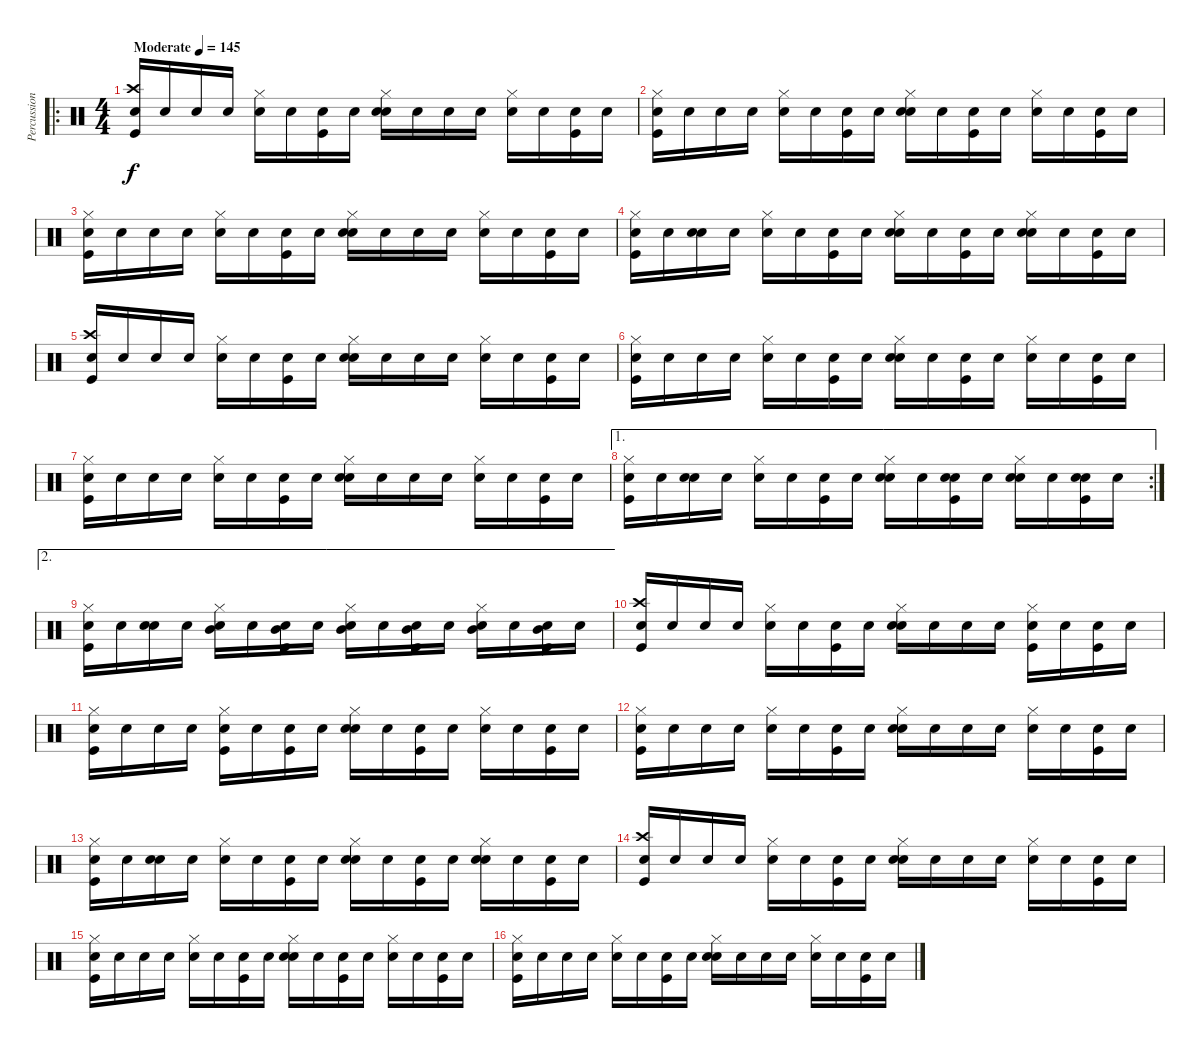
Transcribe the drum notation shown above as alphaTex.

\track ("Percussion" "Percussion") {instrument percussion}
\staff {score}
\articulation defaults
\ro
\ts (4 4)
\tempo (145 "Moderate")
\clef neutral
\ks c
("Snare (hit)" "Crash high (hit)" "Kick (hit)").16{dy f} "Snare (hit)".16 "Snare (hit)".16 "Snare (hit)".16 ("Snare (hit)" "Hi-Hat (closed)").16 "Snare (hit)".16 ("Snare (hit)" "Kick (hit)").16 "Snare (hit)".16 ("Snare (hit)" "Hi-Hat (closed)" "Snare (hit) 2").16 "Snare (hit)".16 "Snare (hit)".16 "Snare (hit)".16 ("Snare (hit)" "Hi-Hat (closed)").16 "Snare (hit)".16 ("Snare (hit)" "Kick (hit)").16 "Snare (hit)".16 |
("Snare (hit)" "Hi-Hat (closed)" "Kick (hit)").16 "Snare (hit)".16 "Snare (hit)".16 "Snare (hit)".16 ("Snare (hit)" "Hi-Hat (closed)").16 "Snare (hit)".16 ("Snare (hit)" "Kick (hit)").16 "Snare (hit)".16 ("Snare (hit)" "Hi-Hat (closed)" "Snare (hit) 2").16 "Snare (hit)".16 ("Snare (hit)" "Kick (hit)").16 "Snare (hit)".16 ("Snare (hit)" "Hi-Hat (closed)").16 "Snare (hit)".16 ("Snare (hit)" "Kick (hit)").16 "Snare (hit)".16 |
("Snare (hit)" "Hi-Hat (closed)" "Kick (hit)").16 "Snare (hit)".16 "Snare (hit)".16 "Snare (hit)".16 ("Snare (hit)" "Hi-Hat (closed)").16 "Snare (hit)".16 ("Snare (hit)" "Kick (hit)").16 "Snare (hit)".16 ("Snare (hit)" "Hi-Hat (closed)" "Snare (hit) 2").16 "Snare (hit)".16 "Snare (hit)".16 "Snare (hit)".16 ("Snare (hit)" "Hi-Hat (closed)").16 "Snare (hit)".16 ("Snare (hit)" "Kick (hit)").16 "Snare (hit)".16 |
("Snare (hit)" "Hi-Hat (closed)" "Kick (hit)").16 "Snare (hit)".16 ("Snare (hit)" "Snare (hit) 2").16 "Snare (hit)".16 ("Snare (hit)" "Hi-Hat (closed)").16 "Snare (hit)".16 ("Snare (hit)" "Kick (hit)").16 "Snare (hit)".16 ("Snare (hit)" "Snare (hit) 2" "Hi-Hat (closed)").16 "Snare (hit)".16 ("Snare (hit)" "Kick (hit)").16 "Snare (hit)".16 ("Snare (hit)" "Snare (hit) 2" "Hi-Hat (closed)").16 "Snare (hit)".16 ("Snare (hit)" "Kick (hit)").16 "Snare (hit)".16 |
("Snare (hit)" "Crash high (hit)" "Kick (hit)").16 "Snare (hit)".16 "Snare (hit)".16 "Snare (hit)".16 ("Snare (hit)" "Hi-Hat (closed)").16 "Snare (hit)".16 ("Snare (hit)" "Kick (hit)").16 "Snare (hit)".16 ("Snare (hit)" "Hi-Hat (closed)" "Snare (hit) 2").16 "Snare (hit)".16 "Snare (hit)".16 "Snare (hit)".16 ("Snare (hit)" "Hi-Hat (closed)").16 "Snare (hit)".16 ("Snare (hit)" "Kick (hit)").16 "Snare (hit)".16 |
("Snare (hit)" "Hi-Hat (closed)" "Kick (hit)").16 "Snare (hit)".16 "Snare (hit)".16 "Snare (hit)".16 ("Snare (hit)" "Hi-Hat (closed)").16 "Snare (hit)".16 ("Snare (hit)" "Kick (hit)").16 "Snare (hit)".16 ("Snare (hit)" "Hi-Hat (closed)" "Snare (hit) 2").16 "Snare (hit)".16 ("Snare (hit)" "Kick (hit)").16 "Snare (hit)".16 ("Snare (hit)" "Hi-Hat (closed)").16 "Snare (hit)".16 ("Snare (hit)" "Kick (hit)").16 "Snare (hit)".16 |
("Snare (hit)" "Hi-Hat (closed)" "Kick (hit)").16 "Snare (hit)".16 "Snare (hit)".16 "Snare (hit)".16 ("Snare (hit)" "Hi-Hat (closed)").16 "Snare (hit)".16 ("Snare (hit)" "Kick (hit)").16 "Snare (hit)".16 ("Snare (hit)" "Hi-Hat (closed)" "Snare (hit) 2").16 "Snare (hit)".16 "Snare (hit)".16 "Snare (hit)".16 ("Snare (hit)" "Hi-Hat (closed)").16 "Snare (hit)".16 ("Snare (hit)" "Kick (hit)").16 "Snare (hit)".16 |
\ae 1
\rc 2
("Snare (hit)" "Hi-Hat (closed)" "Kick (hit)").16 "Snare (hit)".16 ("Snare (hit)" "Snare (hit) 2").16 "Snare (hit)".16 ("Snare (hit)" "Hi-Hat (closed)").16 "Snare (hit)".16 ("Snare (hit)" "Kick (hit)").16 "Snare (hit)".16 ("Snare (hit)" "Snare (hit) 2" "Hi-Hat (closed)").16 "Snare (hit)".16 ("Snare (hit)" "Snare (hit) 2" "Kick (hit)").16 "Snare (hit)".16 ("Snare (hit)" "Snare (hit) 2" "Hi-Hat (closed)").16 "Snare (hit)".16 ("Snare (hit)" "Snare (hit) 2" "Kick (hit)").16 "Snare (hit)".16 |
\ae 2
("Snare (hit)" "Hi-Hat (closed)" "Kick (hit)").16 "Snare (hit)".16 ("Snare (hit)" "Snare (hit) 2").16 "Snare (hit)".16 ("Snare (hit)" "Mid Tom (hit)" "Hi-Hat (closed)").16 "Snare (hit)".16 ("Snare (hit)" "Mid Tom (hit)" "Kick (hit)").16 "Snare (hit)".16 ("Snare (hit)" "Mid Tom (hit)" "Hi-Hat (closed)").16 "Snare (hit)".16 ("Snare (hit)" "Mid Tom (hit)" "Kick (hit)").16 "Snare (hit)".16 ("Snare (hit)" "Mid Tom (hit)" "Hi-Hat (closed)").16 "Snare (hit)".16 ("Snare (hit)" "Mid Tom (hit)" "Kick (hit)").16 "Snare (hit)".16 |
("Snare (hit)" "Crash high (hit)" "Kick (hit)").16 "Snare (hit)".16 "Snare (hit)".16 "Snare (hit)".16 ("Snare (hit)" "Hi-Hat (closed)").16 "Snare (hit)".16 ("Snare (hit)" "Kick (hit)").16 "Snare (hit)".16 ("Snare (hit)" "Hi-Hat (closed)" "Snare (hit) 2").16 "Snare (hit)".16 "Snare (hit)".16 "Snare (hit)".16 ("Snare (hit)" "Hi-Hat (closed)" "Kick (hit)").16 "Snare (hit)".16 ("Snare (hit)" "Kick (hit)").16 "Snare (hit)".16 |
("Snare (hit)" "Hi-Hat (closed)" "Kick (hit)").16 "Snare (hit)".16 "Snare (hit)".16 "Snare (hit)".16 ("Snare (hit)" "Hi-Hat (closed)" "Kick (hit)").16 "Snare (hit)".16 ("Snare (hit)" "Kick (hit)").16 "Snare (hit)".16 ("Snare (hit)" "Hi-Hat (closed)" "Snare (hit) 2").16 "Snare (hit)".16 ("Snare (hit)" "Kick (hit)").16 "Snare (hit)".16 ("Snare (hit)" "Hi-Hat (closed)").16 "Snare (hit)".16 ("Snare (hit)" "Kick (hit)").16 "Snare (hit)".16 |
("Snare (hit)" "Hi-Hat (closed)" "Kick (hit)").16 "Snare (hit)".16 "Snare (hit)".16 "Snare (hit)".16 ("Snare (hit)" "Hi-Hat (closed)").16 "Snare (hit)".16 ("Snare (hit)" "Kick (hit)").16 "Snare (hit)".16 ("Snare (hit)" "Hi-Hat (closed)" "Snare (hit) 2").16 "Snare (hit)".16 "Snare (hit)".16 "Snare (hit)".16 ("Snare (hit)" "Hi-Hat (closed)").16 "Snare (hit)".16 ("Snare (hit)" "Kick (hit)").16 "Snare (hit)".16 |
("Snare (hit)" "Hi-Hat (closed)" "Kick (hit)").16 "Snare (hit)".16 ("Snare (hit)" "Snare (hit) 2").16 "Snare (hit)".16 ("Snare (hit)" "Hi-Hat (closed)").16 "Snare (hit)".16 ("Snare (hit)" "Kick (hit)").16 "Snare (hit)".16 ("Snare (hit)" "Snare (hit) 2" "Hi-Hat (closed)").16 "Snare (hit)".16 ("Snare (hit)" "Kick (hit)").16 "Snare (hit)".16 ("Snare (hit)" "Snare (hit) 2" "Hi-Hat (closed)").16 "Snare (hit)".16 ("Snare (hit)" "Kick (hit)").16 "Snare (hit)".16 |
("Snare (hit)" "Crash high (hit)" "Kick (hit)").16 "Snare (hit)".16 "Snare (hit)".16 "Snare (hit)".16 ("Snare (hit)" "Hi-Hat (closed)").16 "Snare (hit)".16 ("Snare (hit)" "Kick (hit)").16 "Snare (hit)".16 ("Snare (hit)" "Hi-Hat (closed)" "Snare (hit) 2").16 "Snare (hit)".16 "Snare (hit)".16 "Snare (hit)".16 ("Snare (hit)" "Hi-Hat (closed)").16 "Snare (hit)".16 ("Snare (hit)" "Kick (hit)").16 "Snare (hit)".16 |
("Snare (hit)" "Hi-Hat (closed)" "Kick (hit)").16 "Snare (hit)".16 "Snare (hit)".16 "Snare (hit)".16 ("Snare (hit)" "Hi-Hat (closed)").16 "Snare (hit)".16 ("Snare (hit)" "Kick (hit)").16 "Snare (hit)".16 ("Snare (hit)" "Hi-Hat (closed)" "Snare (hit) 2").16 "Snare (hit)".16 ("Snare (hit)" "Kick (hit)").16 "Snare (hit)".16 ("Snare (hit)" "Hi-Hat (closed)").16 "Snare (hit)".16 ("Snare (hit)" "Kick (hit)").16 "Snare (hit)".16 |
("Snare (hit)" "Hi-Hat (closed)" "Kick (hit)").16 "Snare (hit)".16 "Snare (hit)".16 "Snare (hit)".16 ("Snare (hit)" "Hi-Hat (closed)").16 "Snare (hit)".16 ("Snare (hit)" "Kick (hit)").16 "Snare (hit)".16 ("Snare (hit)" "Hi-Hat (closed)" "Snare (hit) 2").16 "Snare (hit)".16 "Snare (hit)".16 "Snare (hit)".16 ("Snare (hit)" "Hi-Hat (closed)").16 "Snare (hit)".16 ("Snare (hit)" "Kick (hit)").16 "Snare (hit)".16
